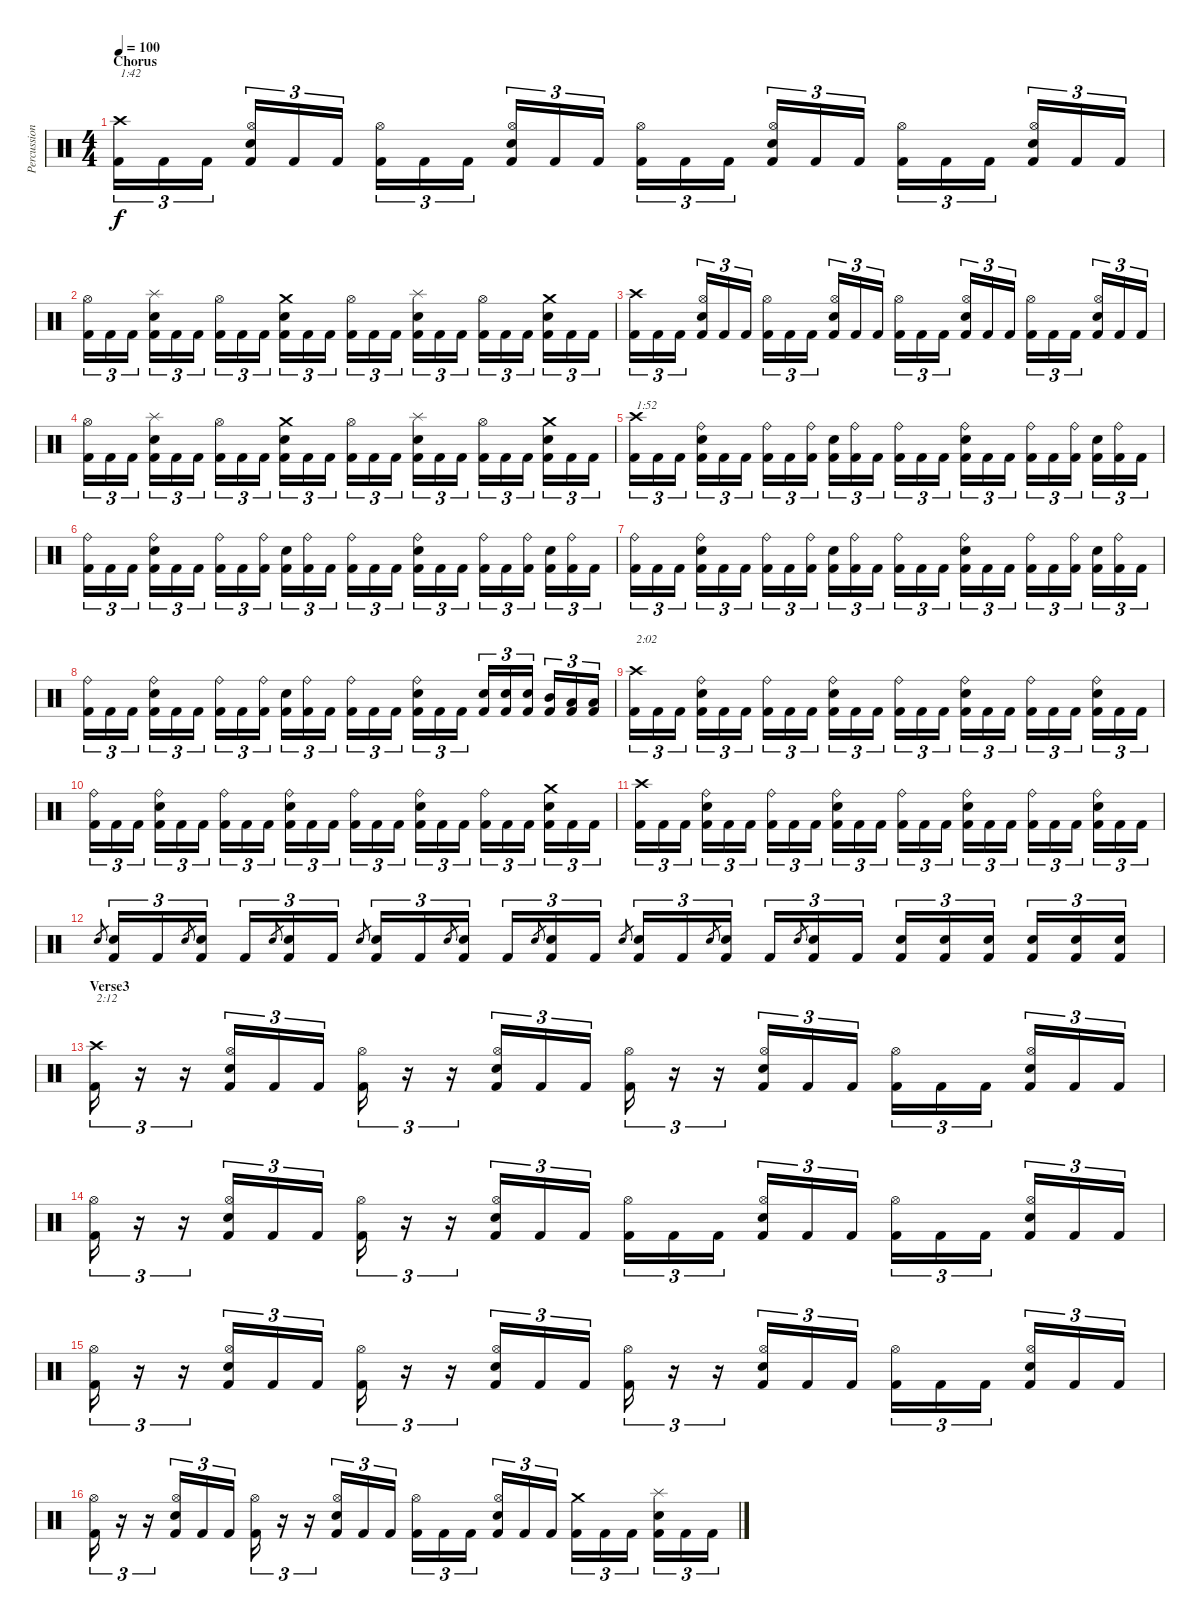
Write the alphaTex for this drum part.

\track ("Percussion" "Percussion") {instrument percussion}
\staff {score}
\articulation defaults
\ts (4 4)
\section ("" "Chorus")
\tempo 100
\clef neutral
\ks c
("Crash high (hit)" "Kick (hit) 2").16{tu (3 2) txt "1:42" dy f} "Kick (hit) 2".16{tu (3 2)} "Kick (hit) 2".16{tu (3 2)} ("Hi-Hat (open)" "Snare (hit) 2" "Kick (hit) 2").16{tu (3 2)} "Kick (hit) 2".16{tu (3 2)} "Kick (hit) 2".16{tu (3 2)} ("Hi-Hat (open)" "Kick (hit) 2").16{tu (3 2)} "Kick (hit) 2".16{tu (3 2)} "Kick (hit) 2".16{tu (3 2)} ("Hi-Hat (open)" "Snare (hit) 2" "Kick (hit) 2").16{tu (3 2)} "Kick (hit) 2".16{tu (3 2)} "Kick (hit) 2".16{tu (3 2)} ("Hi-Hat (open)" "Kick (hit) 2").16{tu (3 2)} "Kick (hit) 2".16{tu (3 2)} "Kick (hit) 2".16{tu (3 2)} ("Hi-Hat (open)" "Snare (hit) 2" "Kick (hit) 2").16{tu (3 2)} "Kick (hit) 2".16{tu (3 2)} "Kick (hit) 2".16{tu (3 2)} ("Hi-Hat (open)" "Kick (hit) 2").16{tu (3 2)} "Kick (hit) 2".16{tu (3 2)} "Kick (hit) 2".16{tu (3 2)} ("Hi-Hat (open)" "Snare (hit) 2" "Kick (hit) 2").16{tu (3 2)} "Kick (hit) 2".16{tu (3 2)} "Kick (hit) 2".16{tu (3 2)} |
("Hi-Hat (open)" "Kick (hit) 2").16{tu (3 2)} "Kick (hit) 2".16{tu (3 2)} "Kick (hit) 2".16{tu (3 2)} ("Splash (hit)" "Snare (hit) 2" "Kick (hit) 2").16{tu (3 2)} "Kick (hit) 2".16{tu (3 2)} "Kick (hit) 2".16{tu (3 2)} ("Hi-Hat (open)" "Kick (hit) 2").16{tu (3 2)} "Kick (hit) 2".16{tu (3 2)} "Kick (hit) 2".16{tu (3 2)} ("Crash medium (hit)" "Snare (hit) 2" "Kick (hit) 2").16{tu (3 2)} "Kick (hit) 2".16{tu (3 2)} "Kick (hit) 2".16{tu (3 2)} ("Hi-Hat (open)" "Kick (hit) 2").16{tu (3 2)} "Kick (hit) 2".16{tu (3 2)} "Kick (hit) 2".16{tu (3 2)} ("Splash (hit)" "Snare (hit) 2" "Kick (hit) 2").16{tu (3 2)} "Kick (hit) 2".16{tu (3 2)} "Kick (hit) 2".16{tu (3 2)} ("Hi-Hat (open)" "Kick (hit) 2").16{tu (3 2)} "Kick (hit) 2".16{tu (3 2)} "Kick (hit) 2".16{tu (3 2)} ("Crash medium (hit)" "Snare (hit) 2" "Kick (hit) 2").16{tu (3 2)} "Kick (hit) 2".16{tu (3 2)} "Kick (hit) 2".16{tu (3 2)} |
("Crash high (hit)" "Kick (hit) 2").16{tu (3 2)} "Kick (hit) 2".16{tu (3 2)} "Kick (hit) 2".16{tu (3 2)} ("Hi-Hat (open)" "Snare (hit) 2" "Kick (hit) 2").16{tu (3 2)} "Kick (hit) 2".16{tu (3 2)} "Kick (hit) 2".16{tu (3 2)} ("Hi-Hat (open)" "Kick (hit) 2").16{tu (3 2)} "Kick (hit) 2".16{tu (3 2)} "Kick (hit) 2".16{tu (3 2)} ("Hi-Hat (open)" "Snare (hit) 2" "Kick (hit) 2").16{tu (3 2)} "Kick (hit) 2".16{tu (3 2)} "Kick (hit) 2".16{tu (3 2)} ("Hi-Hat (open)" "Kick (hit) 2").16{tu (3 2)} "Kick (hit) 2".16{tu (3 2)} "Kick (hit) 2".16{tu (3 2)} ("Hi-Hat (open)" "Snare (hit) 2" "Kick (hit) 2").16{tu (3 2)} "Kick (hit) 2".16{tu (3 2)} "Kick (hit) 2".16{tu (3 2)} ("Hi-Hat (open)" "Kick (hit) 2").16{tu (3 2)} "Kick (hit) 2".16{tu (3 2)} "Kick (hit) 2".16{tu (3 2)} ("Hi-Hat (open)" "Snare (hit) 2" "Kick (hit) 2").16{tu (3 2)} "Kick (hit) 2".16{tu (3 2)} "Kick (hit) 2".16{tu (3 2)} |
("Hi-Hat (open)" "Kick (hit) 2").16{tu (3 2)} "Kick (hit) 2".16{tu (3 2)} "Kick (hit) 2".16{tu (3 2)} ("Splash (hit)" "Snare (hit) 2" "Kick (hit) 2").16{tu (3 2)} "Kick (hit) 2".16{tu (3 2)} "Kick (hit) 2".16{tu (3 2)} ("Hi-Hat (open)" "Kick (hit) 2").16{tu (3 2)} "Kick (hit) 2".16{tu (3 2)} "Kick (hit) 2".16{tu (3 2)} ("Crash medium (hit)" "Snare (hit) 2" "Kick (hit) 2").16{tu (3 2)} "Kick (hit) 2".16{tu (3 2)} "Kick (hit) 2".16{tu (3 2)} ("Hi-Hat (open)" "Kick (hit) 2").16{tu (3 2)} "Kick (hit) 2".16{tu (3 2)} "Kick (hit) 2".16{tu (3 2)} ("Splash (hit)" "Snare (hit) 2" "Kick (hit) 2").16{tu (3 2)} "Kick (hit) 2".16{tu (3 2)} "Kick (hit) 2".16{tu (3 2)} ("Hi-Hat (open)" "Kick (hit) 2").16{tu (3 2)} "Kick (hit) 2".16{tu (3 2)} "Kick (hit) 2".16{tu (3 2)} ("Crash medium (hit)" "Snare (hit) 2" "Kick (hit) 2").16{tu (3 2)} "Kick (hit) 2".16{tu (3 2)} "Kick (hit) 2".16{tu (3 2)} |
("Crash high (hit)" "Kick (hit) 2").16{tu (3 2) txt "1:52"} "Kick (hit) 2".16{tu (3 2)} "Kick (hit) 2".16{tu (3 2)} ("Ride (bell)" "Snare (hit) 2" "Kick (hit) 2").16{tu (3 2)} "Kick (hit) 2".16{tu (3 2)} "Kick (hit) 2".16{tu (3 2)} ("Ride (bell)" "Kick (hit) 2").16{tu (3 2)} "Kick (hit) 2".16{tu (3 2)} ("Ride (bell)" "Kick (hit) 2").16{tu (3 2)} ("Snare (hit) 2" "Kick (hit) 2").16{tu (3 2)} ("Ride (bell)" "Kick (hit) 2").16{tu (3 2)} "Kick (hit) 2".16{tu (3 2)} ("Ride (bell)" "Kick (hit) 2").16{tu (3 2)} "Kick (hit) 2".16{tu (3 2)} "Kick (hit) 2".16{tu (3 2)} ("Ride (bell)" "Snare (hit) 2" "Kick (hit) 2").16{tu (3 2)} "Kick (hit) 2".16{tu (3 2)} "Kick (hit) 2".16{tu (3 2)} ("Ride (bell)" "Kick (hit) 2").16{tu (3 2)} "Kick (hit) 2".16{tu (3 2)} ("Ride (bell)" "Kick (hit) 2").16{tu (3 2)} ("Snare (hit) 2" "Kick (hit) 2").16{tu (3 2)} ("Ride (bell)" "Kick (hit) 2").16{tu (3 2)} "Kick (hit) 2".16{tu (3 2)} |
("Ride (bell)" "Kick (hit) 2").16{tu (3 2)} "Kick (hit) 2".16{tu (3 2)} "Kick (hit) 2".16{tu (3 2)} ("Ride (bell)" "Snare (hit) 2" "Kick (hit) 2").16{tu (3 2)} "Kick (hit) 2".16{tu (3 2)} "Kick (hit) 2".16{tu (3 2)} ("Ride (bell)" "Kick (hit) 2").16{tu (3 2)} "Kick (hit) 2".16{tu (3 2)} ("Ride (bell)" "Kick (hit) 2").16{tu (3 2)} ("Snare (hit) 2" "Kick (hit) 2").16{tu (3 2)} ("Ride (bell)" "Kick (hit) 2").16{tu (3 2)} "Kick (hit) 2".16{tu (3 2)} ("Ride (bell)" "Kick (hit) 2").16{tu (3 2)} "Kick (hit) 2".16{tu (3 2)} "Kick (hit) 2".16{tu (3 2)} ("Ride (bell)" "Snare (hit) 2" "Kick (hit) 2").16{tu (3 2)} "Kick (hit) 2".16{tu (3 2)} "Kick (hit) 2".16{tu (3 2)} ("Ride (bell)" "Kick (hit) 2").16{tu (3 2)} "Kick (hit) 2".16{tu (3 2)} ("Ride (bell)" "Kick (hit) 2").16{tu (3 2)} ("Snare (hit) 2" "Kick (hit) 2").16{tu (3 2)} ("Ride (bell)" "Kick (hit) 2").16{tu (3 2)} "Kick (hit) 2".16{tu (3 2)} |
("Ride (bell)" "Kick (hit) 2").16{tu (3 2)} "Kick (hit) 2".16{tu (3 2)} "Kick (hit) 2".16{tu (3 2)} ("Ride (bell)" "Snare (hit) 2" "Kick (hit) 2").16{tu (3 2)} "Kick (hit) 2".16{tu (3 2)} "Kick (hit) 2".16{tu (3 2)} ("Ride (bell)" "Kick (hit) 2").16{tu (3 2)} "Kick (hit) 2".16{tu (3 2)} ("Ride (bell)" "Kick (hit) 2").16{tu (3 2)} ("Snare (hit) 2" "Kick (hit) 2").16{tu (3 2)} ("Ride (bell)" "Kick (hit) 2").16{tu (3 2)} "Kick (hit) 2".16{tu (3 2)} ("Ride (bell)" "Kick (hit) 2").16{tu (3 2)} "Kick (hit) 2".16{tu (3 2)} "Kick (hit) 2".16{tu (3 2)} ("Ride (bell)" "Snare (hit) 2" "Kick (hit) 2").16{tu (3 2)} "Kick (hit) 2".16{tu (3 2)} "Kick (hit) 2".16{tu (3 2)} ("Ride (bell)" "Kick (hit) 2").16{tu (3 2)} "Kick (hit) 2".16{tu (3 2)} ("Ride (bell)" "Kick (hit) 2").16{tu (3 2)} ("Snare (hit) 2" "Kick (hit) 2").16{tu (3 2)} ("Ride (bell)" "Kick (hit) 2").16{tu (3 2)} "Kick (hit) 2".16{tu (3 2)} |
("Ride (bell)" "Kick (hit) 2").16{tu (3 2)} "Kick (hit) 2".16{tu (3 2)} "Kick (hit) 2".16{tu (3 2)} ("Ride (bell)" "Snare (hit) 2" "Kick (hit) 2").16{tu (3 2)} "Kick (hit) 2".16{tu (3 2)} "Kick (hit) 2".16{tu (3 2)} ("Ride (bell)" "Kick (hit) 2").16{tu (3 2)} "Kick (hit) 2".16{tu (3 2)} ("Ride (bell)" "Kick (hit) 2").16{tu (3 2)} ("Snare (hit) 2" "Kick (hit) 2").16{tu (3 2)} ("Ride (bell)" "Kick (hit) 2").16{tu (3 2)} "Kick (hit) 2".16{tu (3 2)} ("Ride (bell)" "Kick (hit) 2").16{tu (3 2)} "Kick (hit) 2".16{tu (3 2)} "Kick (hit) 2".16{tu (3 2)} ("Ride (bell)" "Snare (hit) 2" "Kick (hit) 2").16{tu (3 2)} "Kick (hit) 2".16{tu (3 2)} "Kick (hit) 2".16{tu (3 2)} ("Snare (hit) 2" "Kick (hit) 2").16{tu (3 2)} ("Snare (hit) 2" "Kick (hit) 2").16{tu (3 2)} ("Snare (hit) 2" "Kick (hit) 2").16{tu (3 2)} ("Mid Tom (hit)" "Kick (hit) 2").16{tu (3 2)} ("Low Tom (hit)" "Kick (hit) 2").16{tu (3 2)} ("Low Tom (hit)" "Kick (hit) 2").16{tu (3 2)} |
("Crash high (hit)" "Kick (hit) 2").16{tu (3 2) txt "2:02"} "Kick (hit) 2".16{tu (3 2)} "Kick (hit) 2".16{tu (3 2)} ("Ride (bell)" "Snare (hit) 2" "Kick (hit) 2").16{tu (3 2)} "Kick (hit) 2".16{tu (3 2)} "Kick (hit) 2".16{tu (3 2)} ("Ride (bell)" "Kick (hit) 2").16{tu (3 2)} "Kick (hit) 2".16{tu (3 2)} "Kick (hit) 2".16{tu (3 2)} ("Ride (bell)" "Snare (hit) 2" "Kick (hit) 2").16{tu (3 2)} "Kick (hit) 2".16{tu (3 2)} "Kick (hit) 2".16{tu (3 2)} ("Ride (bell)" "Kick (hit) 2").16{tu (3 2)} "Kick (hit) 2".16{tu (3 2)} "Kick (hit) 2".16{tu (3 2)} ("Ride (bell)" "Snare (hit) 2" "Kick (hit) 2").16{tu (3 2)} "Kick (hit) 2".16{tu (3 2)} "Kick (hit) 2".16{tu (3 2)} ("Ride (bell)" "Kick (hit) 2").16{tu (3 2)} "Kick (hit) 2".16{tu (3 2)} "Kick (hit) 2".16{tu (3 2)} ("Ride (bell)" "Snare (hit) 2" "Kick (hit) 2").16{tu (3 2)} "Kick (hit) 2".16{tu (3 2)} "Kick (hit) 2".16{tu (3 2)} |
("Ride (bell)" "Kick (hit) 2").16{tu (3 2)} "Kick (hit) 2".16{tu (3 2)} "Kick (hit) 2".16{tu (3 2)} ("Ride (bell)" "Snare (hit) 2" "Kick (hit) 2").16{tu (3 2)} "Kick (hit) 2".16{tu (3 2)} "Kick (hit) 2".16{tu (3 2)} ("Ride (bell)" "Kick (hit) 2").16{tu (3 2)} "Kick (hit) 2".16{tu (3 2)} "Kick (hit) 2".16{tu (3 2)} ("Ride (bell)" "Snare (hit) 2" "Kick (hit) 2").16{tu (3 2)} "Kick (hit) 2".16{tu (3 2)} "Kick (hit) 2".16{tu (3 2)} ("Ride (bell)" "Kick (hit) 2").16{tu (3 2)} "Kick (hit) 2".16{tu (3 2)} "Kick (hit) 2".16{tu (3 2)} ("Ride (bell)" "Snare (hit) 2" "Kick (hit) 2").16{tu (3 2)} "Kick (hit) 2".16{tu (3 2)} "Kick (hit) 2".16{tu (3 2)} ("Ride (bell)" "Kick (hit) 2").16{tu (3 2)} "Kick (hit) 2".16{tu (3 2)} "Kick (hit) 2".16{tu (3 2)} ("Crash medium (hit)" "Snare (hit) 2" "Kick (hit) 2").16{tu (3 2)} "Kick (hit) 2".16{tu (3 2)} "Kick (hit) 2".16{tu (3 2)} |
("Crash high (hit)" "Kick (hit) 2").16{tu (3 2)} "Kick (hit) 2".16{tu (3 2)} "Kick (hit) 2".16{tu (3 2)} ("Ride (bell)" "Snare (hit) 2" "Kick (hit) 2").16{tu (3 2)} "Kick (hit) 2".16{tu (3 2)} "Kick (hit) 2".16{tu (3 2)} ("Ride (bell)" "Kick (hit) 2").16{tu (3 2)} "Kick (hit) 2".16{tu (3 2)} "Kick (hit) 2".16{tu (3 2)} ("Ride (bell)" "Snare (hit) 2" "Kick (hit) 2").16{tu (3 2)} "Kick (hit) 2".16{tu (3 2)} "Kick (hit) 2".16{tu (3 2)} ("Ride (bell)" "Kick (hit) 2").16{tu (3 2)} "Kick (hit) 2".16{tu (3 2)} "Kick (hit) 2".16{tu (3 2)} ("Ride (bell)" "Snare (hit) 2" "Kick (hit) 2").16{tu (3 2)} "Kick (hit) 2".16{tu (3 2)} "Kick (hit) 2".16{tu (3 2)} ("Ride (bell)" "Kick (hit) 2").16{tu (3 2)} "Kick (hit) 2".16{tu (3 2)} "Kick (hit) 2".16{tu (3 2)} ("Ride (bell)" "Snare (hit) 2" "Kick (hit) 2").16{tu (3 2)} "Kick (hit) 2".16{tu (3 2)} "Kick (hit) 2".16{tu (3 2)} |
"Snare (hit) 2".8{gr} ("Snare (hit) 2" "Kick (hit) 2").16{tu (3 2)} "Kick (hit) 2".16{tu (3 2)} "Snare (hit) 2".8{gr} ("Snare (hit) 2" "Kick (hit) 2").16{tu (3 2)} "Kick (hit) 2".16{tu (3 2)} "Snare (hit) 2".8{gr} ("Snare (hit) 2" "Kick (hit) 2").16{tu (3 2)} "Kick (hit) 2".16{tu (3 2)} "Snare (hit) 2".8{gr} ("Snare (hit) 2" "Kick (hit) 2").16{tu (3 2)} "Kick (hit) 2".16{tu (3 2)} "Snare (hit) 2".8{gr} ("Snare (hit) 2" "Kick (hit) 2").16{tu (3 2)} "Kick (hit) 2".16{tu (3 2)} "Snare (hit) 2".8{gr} ("Snare (hit) 2" "Kick (hit) 2").16{tu (3 2)} "Kick (hit) 2".16{tu (3 2)} "Snare (hit) 2".8{gr} ("Snare (hit) 2" "Kick (hit) 2").16{tu (3 2)} "Kick (hit) 2".16{tu (3 2)} "Snare (hit) 2".8{gr} ("Snare (hit) 2" "Kick (hit) 2").16{tu (3 2)} "Kick (hit) 2".16{tu (3 2)} "Snare (hit) 2".8{gr} ("Snare (hit) 2" "Kick (hit) 2").16{tu (3 2)} "Kick (hit) 2".16{tu (3 2)} ("Snare (hit) 2" "Kick (hit) 2").16{tu (3 2)} ("Snare (hit) 2" "Kick (hit) 2").16{tu (3 2)} ("Snare (hit) 2" "Kick (hit) 2").16{tu (3 2)} ("Snare (hit) 2" "Kick (hit) 2").16{tu (3 2)} ("Snare (hit) 2" "Kick (hit) 2").16{tu (3 2)} ("Snare (hit) 2" "Kick (hit) 2").16{tu (3 2)} |
\section ("" "Verse3")
("Crash high (hit)" "Kick (hit) 2").16{tu (3 2) txt "2:12"} r.16{tu (3 2)} r.16{tu (3 2)} ("Hi-Hat (open)" "Snare (hit) 2" "Kick (hit) 2").16{tu (3 2)} "Kick (hit) 2".16{tu (3 2)} "Kick (hit) 2".16{tu (3 2)} ("Hi-Hat (open)" "Kick (hit) 2").16{tu (3 2)} r.16{tu (3 2)} r.16{tu (3 2)} ("Hi-Hat (open)" "Snare (hit) 2" "Kick (hit) 2").16{tu (3 2)} "Kick (hit) 2".16{tu (3 2)} "Kick (hit) 2".16{tu (3 2)} ("Hi-Hat (open)" "Kick (hit) 2").16{tu (3 2)} r.16{tu (3 2)} r.16{tu (3 2)} ("Hi-Hat (open)" "Snare (hit) 2" "Kick (hit) 2").16{tu (3 2)} "Kick (hit) 2".16{tu (3 2)} "Kick (hit) 2".16{tu (3 2)} ("Hi-Hat (open)" "Kick (hit) 2").16{tu (3 2)} "Kick (hit) 2".16{tu (3 2)} "Kick (hit) 2".16{tu (3 2)} ("Hi-Hat (open)" "Snare (hit) 2" "Kick (hit) 2").16{tu (3 2)} "Kick (hit) 2".16{tu (3 2)} "Kick (hit) 2".16{tu (3 2)} |
("Hi-Hat (open)" "Kick (hit) 2").16{tu (3 2)} r.16{tu (3 2)} r.16{tu (3 2)} ("Hi-Hat (open)" "Snare (hit) 2" "Kick (hit) 2").16{tu (3 2)} "Kick (hit) 2".16{tu (3 2)} "Kick (hit) 2".16{tu (3 2)} ("Hi-Hat (open)" "Kick (hit) 2").16{tu (3 2)} r.16{tu (3 2)} r.16{tu (3 2)} ("Hi-Hat (open)" "Snare (hit) 2" "Kick (hit) 2").16{tu (3 2)} "Kick (hit) 2".16{tu (3 2)} "Kick (hit) 2".16{tu (3 2)} ("Hi-Hat (open)" "Kick (hit) 2").16{tu (3 2)} "Kick (hit) 2".16{tu (3 2)} "Kick (hit) 2".16{tu (3 2)} ("Hi-Hat (open)" "Snare (hit) 2" "Kick (hit) 2").16{tu (3 2)} "Kick (hit) 2".16{tu (3 2)} "Kick (hit) 2".16{tu (3 2)} ("Hi-Hat (open)" "Kick (hit) 2").16{tu (3 2)} "Kick (hit) 2".16{tu (3 2)} "Kick (hit) 2".16{tu (3 2)} ("Hi-Hat (open)" "Snare (hit) 2" "Kick (hit) 2").16{tu (3 2)} "Kick (hit) 2".16{tu (3 2)} "Kick (hit) 2".16{tu (3 2)} |
("Hi-Hat (open)" "Kick (hit) 2").16{tu (3 2)} r.16{tu (3 2)} r.16{tu (3 2)} ("Hi-Hat (open)" "Snare (hit) 2" "Kick (hit) 2").16{tu (3 2)} "Kick (hit) 2".16{tu (3 2)} "Kick (hit) 2".16{tu (3 2)} ("Hi-Hat (open)" "Kick (hit) 2").16{tu (3 2)} r.16{tu (3 2)} r.16{tu (3 2)} ("Hi-Hat (open)" "Snare (hit) 2" "Kick (hit) 2").16{tu (3 2)} "Kick (hit) 2".16{tu (3 2)} "Kick (hit) 2".16{tu (3 2)} ("Hi-Hat (open)" "Kick (hit) 2").16{tu (3 2)} r.16{tu (3 2)} r.16{tu (3 2)} ("Hi-Hat (open)" "Snare (hit) 2" "Kick (hit) 2").16{tu (3 2)} "Kick (hit) 2".16{tu (3 2)} "Kick (hit) 2".16{tu (3 2)} ("Hi-Hat (open)" "Kick (hit) 2").16{tu (3 2)} "Kick (hit) 2".16{tu (3 2)} "Kick (hit) 2".16{tu (3 2)} ("Hi-Hat (open)" "Snare (hit) 2" "Kick (hit) 2").16{tu (3 2)} "Kick (hit) 2".16{tu (3 2)} "Kick (hit) 2".16{tu (3 2)} |
("Hi-Hat (open)" "Kick (hit) 2").16{tu (3 2)} r.16{tu (3 2)} r.16{tu (3 2)} ("Hi-Hat (open)" "Snare (hit) 2" "Kick (hit) 2").16{tu (3 2)} "Kick (hit) 2".16{tu (3 2)} "Kick (hit) 2".16{tu (3 2)} ("Hi-Hat (open)" "Kick (hit) 2").16{tu (3 2)} r.16{tu (3 2)} r.16{tu (3 2)} ("Hi-Hat (open)" "Snare (hit) 2" "Kick (hit) 2").16{tu (3 2)} "Kick (hit) 2".16{tu (3 2)} "Kick (hit) 2".16{tu (3 2)} ("Hi-Hat (open)" "Kick (hit) 2").16{tu (3 2)} "Kick (hit) 2".16{tu (3 2)} "Kick (hit) 2".16{tu (3 2)} ("Hi-Hat (open)" "Snare (hit) 2" "Kick (hit) 2").16{tu (3 2)} "Kick (hit) 2".16{tu (3 2)} "Kick (hit) 2".16{tu (3 2)} ("Crash medium (hit)" "Kick (hit) 2").16{tu (3 2)} "Kick (hit) 2".16{tu (3 2)} "Kick (hit) 2".16{tu (3 2)} ("Splash (hit)" "Snare (hit) 2" "Kick (hit) 2").16{tu (3 2)} "Kick (hit) 2".16{tu (3 2)} "Kick (hit) 2".16{tu (3 2)}
